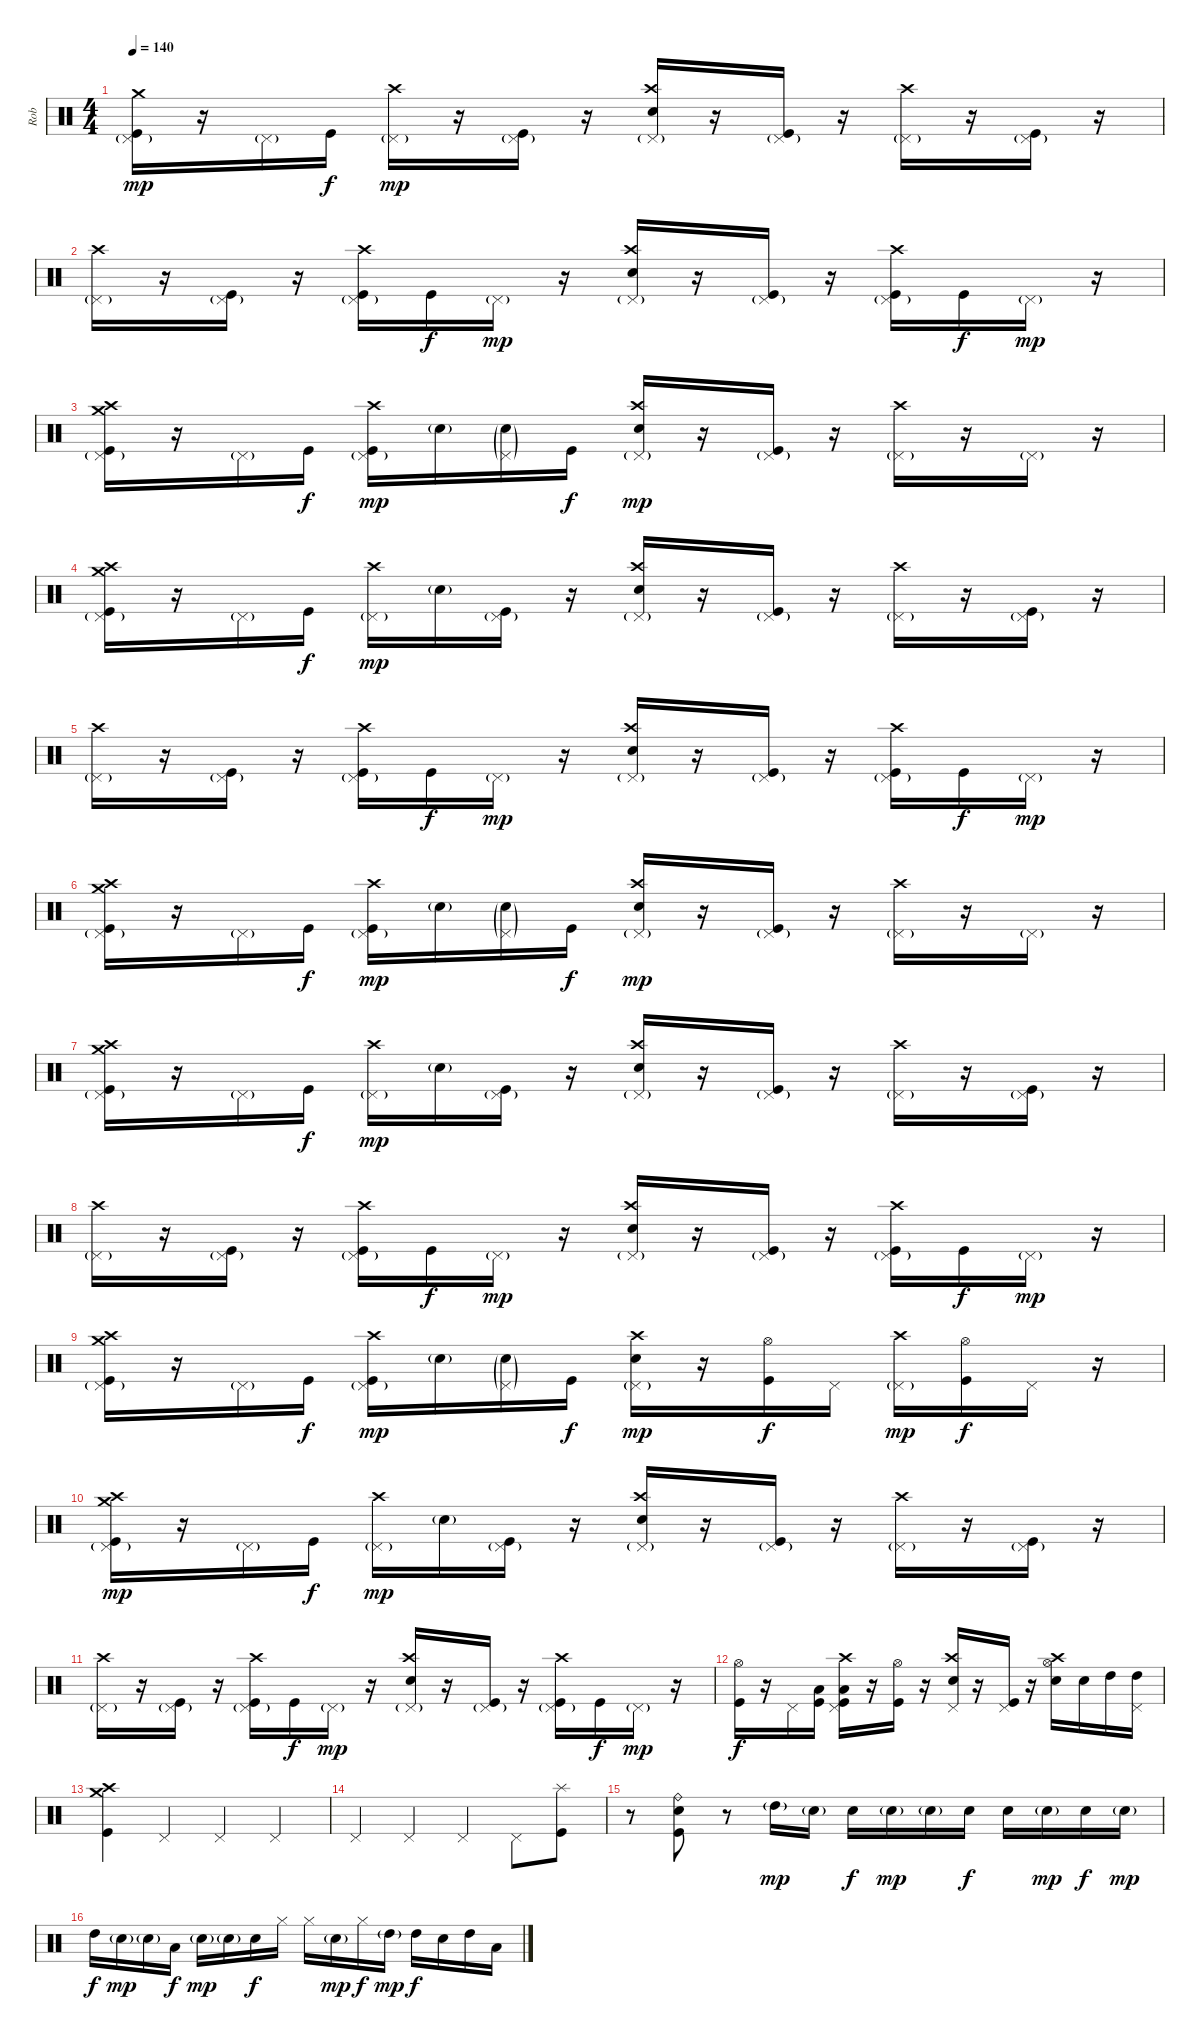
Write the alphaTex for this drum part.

\track ("Rob" "Rob") {instrument percussion}
\staff {score}
\articulation defaults
\ts (4 4)
\tempo 140
\clef neutral
\ks c
("Crash medium (hit)" "Pedal Hi-Hat (hit)"{g} "Kick (hit)").16{dy mp} r.16 "Pedal Hi-Hat (hit)"{g}.16 "Kick (hit)".16{dy f} ("Crash high (hit)" "Pedal Hi-Hat (hit)"{g}).16{dy mp} r.16 ("Pedal Hi-Hat (hit)"{g} "Kick (hit)").16 r.16 ("Electric Snare (hit)" "Crash high (hit)" "Pedal Hi-Hat (hit)"{g}).16 r.16 ("Pedal Hi-Hat (hit)"{g} "Kick (hit)").16 r.16 ("Crash high (hit)" "Pedal Hi-Hat (hit)"{g}).16 r.16 ("Pedal Hi-Hat (hit)"{g} "Kick (hit)").16 r.16 |
("Crash high (hit)" "Pedal Hi-Hat (hit)"{g}).16 r.16 ("Pedal Hi-Hat (hit)"{g} "Kick (hit)").16 r.16 ("Crash high (hit)" "Pedal Hi-Hat (hit)"{g} "Kick (hit)").16 "Kick (hit)".16{dy f} "Pedal Hi-Hat (hit)"{g}.16{dy mp} r.16 ("Electric Snare (hit)" "Crash high (hit)" "Pedal Hi-Hat (hit)"{g}).16 r.16 ("Pedal Hi-Hat (hit)"{g} "Kick (hit)").16 r.16 ("Crash high (hit)" "Pedal Hi-Hat (hit)"{g} "Kick (hit)").16 "Kick (hit)".16{dy f} "Pedal Hi-Hat (hit)"{g}.16{dy mp} r.16 |
("Crash medium (hit)" "Crash high (hit)" "Pedal Hi-Hat (hit)"{g} "Kick (hit)").16 r.16 "Pedal Hi-Hat (hit)"{g}.16 "Kick (hit)".16{dy f} ("Crash high (hit)" "Pedal Hi-Hat (hit)"{g} "Kick (hit)").16{dy mp} "Electric Snare (hit)"{g}.16 ("Electric Snare (hit)"{g} "Pedal Hi-Hat (hit)"{g}).16 "Kick (hit)".16{dy f} ("Electric Snare (hit)" "Crash high (hit)" "Pedal Hi-Hat (hit)"{g}).16{dy mp} r.16 ("Pedal Hi-Hat (hit)"{g} "Kick (hit)").16 r.16 ("Crash high (hit)" "Pedal Hi-Hat (hit)"{g}).16 r.16 "Pedal Hi-Hat (hit)"{g}.16 r.16 |
("Crash medium (hit)" "Crash high (hit)" "Pedal Hi-Hat (hit)"{g} "Kick (hit)").16 r.16 "Pedal Hi-Hat (hit)"{g}.16 "Kick (hit)".16{dy f} ("Crash high (hit)" "Pedal Hi-Hat (hit)"{g}).16{dy mp} "Electric Snare (hit)"{g}.16 ("Pedal Hi-Hat (hit)"{g} "Kick (hit)").16 r.16 ("Electric Snare (hit)" "Crash high (hit)" "Pedal Hi-Hat (hit)"{g}).16 r.16 ("Pedal Hi-Hat (hit)"{g} "Kick (hit)").16 r.16 ("Crash high (hit)" "Pedal Hi-Hat (hit)"{g}).16 r.16 ("Pedal Hi-Hat (hit)"{g} "Kick (hit)").16 r.16 |
("Crash high (hit)" "Pedal Hi-Hat (hit)"{g}).16 r.16 ("Pedal Hi-Hat (hit)"{g} "Kick (hit)").16 r.16 ("Crash high (hit)" "Pedal Hi-Hat (hit)"{g} "Kick (hit)").16 "Kick (hit)".16{dy f} "Pedal Hi-Hat (hit)"{g}.16{dy mp} r.16 ("Electric Snare (hit)" "Crash high (hit)" "Pedal Hi-Hat (hit)"{g}).16 r.16 ("Pedal Hi-Hat (hit)"{g} "Kick (hit)").16 r.16 ("Crash high (hit)" "Pedal Hi-Hat (hit)"{g} "Kick (hit)").16 "Kick (hit)".16{dy f} "Pedal Hi-Hat (hit)"{g}.16{dy mp} r.16 |
("Crash medium (hit)" "Crash high (hit)" "Pedal Hi-Hat (hit)"{g} "Kick (hit)").16 r.16 "Pedal Hi-Hat (hit)"{g}.16 "Kick (hit)".16{dy f} ("Crash high (hit)" "Pedal Hi-Hat (hit)"{g} "Kick (hit)").16{dy mp} "Electric Snare (hit)"{g}.16 ("Electric Snare (hit)"{g} "Pedal Hi-Hat (hit)"{g}).16 "Kick (hit)".16{dy f} ("Electric Snare (hit)" "Crash high (hit)" "Pedal Hi-Hat (hit)"{g}).16{dy mp} r.16 ("Pedal Hi-Hat (hit)"{g} "Kick (hit)").16 r.16 ("Crash high (hit)" "Pedal Hi-Hat (hit)"{g}).16 r.16 "Pedal Hi-Hat (hit)"{g}.16 r.16 |
("Crash medium (hit)" "Crash high (hit)" "Pedal Hi-Hat (hit)"{g} "Kick (hit)").16 r.16 "Pedal Hi-Hat (hit)"{g}.16 "Kick (hit)".16{dy f} ("Crash high (hit)" "Pedal Hi-Hat (hit)"{g}).16{dy mp} "Electric Snare (hit)"{g}.16 ("Pedal Hi-Hat (hit)"{g} "Kick (hit)").16 r.16 ("Electric Snare (hit)" "Crash high (hit)" "Pedal Hi-Hat (hit)"{g}).16 r.16 ("Pedal Hi-Hat (hit)"{g} "Kick (hit)").16 r.16 ("Crash high (hit)" "Pedal Hi-Hat (hit)"{g}).16 r.16 ("Pedal Hi-Hat (hit)"{g} "Kick (hit)").16 r.16 |
("Crash high (hit)" "Pedal Hi-Hat (hit)"{g}).16 r.16 ("Pedal Hi-Hat (hit)"{g} "Kick (hit)").16 r.16 ("Crash high (hit)" "Pedal Hi-Hat (hit)"{g} "Kick (hit)").16 "Kick (hit)".16{dy f} "Pedal Hi-Hat (hit)"{g}.16{dy mp} r.16 ("Electric Snare (hit)" "Crash high (hit)" "Pedal Hi-Hat (hit)"{g}).16 r.16 ("Pedal Hi-Hat (hit)"{g} "Kick (hit)").16 r.16 ("Crash high (hit)" "Pedal Hi-Hat (hit)"{g} "Kick (hit)").16 "Kick (hit)".16{dy f} "Pedal Hi-Hat (hit)"{g}.16{dy mp} r.16 |
("Crash medium (hit)" "Crash high (hit)" "Pedal Hi-Hat (hit)"{g} "Kick (hit)").16 r.16 "Pedal Hi-Hat (hit)"{g}.16 "Kick (hit)".16{dy f} ("Crash high (hit)" "Pedal Hi-Hat (hit)"{g} "Kick (hit)").16{dy mp} "Electric Snare (hit)"{g}.16 ("Electric Snare (hit)"{g} "Pedal Hi-Hat (hit)"{g}).16 "Kick (hit)".16{dy f} ("Electric Snare (hit)" "Crash high (hit)" "Pedal Hi-Hat (hit)"{g}).16{dy mp} r.16 ("Hi-Hat (open)" "Kick (hit)").16{dy f} "Pedal Hi-Hat (hit)".16 ("Crash high (hit)" "Pedal Hi-Hat (hit)"{g}).16{dy mp} ("Hi-Hat (open)" "Kick (hit)").16{dy f} "Pedal Hi-Hat (hit)".16 r.16 |
("Crash medium (hit)" "Crash high (hit)" "Pedal Hi-Hat (hit)"{g} "Kick (hit)").16{dy mp} r.16 "Pedal Hi-Hat (hit)"{g}.16 "Kick (hit)".16{dy f} ("Crash high (hit)" "Pedal Hi-Hat (hit)"{g}).16{dy mp} "Electric Snare (hit)"{g}.16 ("Pedal Hi-Hat (hit)"{g} "Kick (hit)").16 r.16 ("Electric Snare (hit)" "Crash high (hit)" "Pedal Hi-Hat (hit)"{g}).16 r.16 ("Pedal Hi-Hat (hit)"{g} "Kick (hit)").16 r.16 ("Crash high (hit)" "Pedal Hi-Hat (hit)"{g}).16 r.16 ("Pedal Hi-Hat (hit)"{g} "Kick (hit)").16 r.16 |
("Crash high (hit)" "Pedal Hi-Hat (hit)"{g}).16 r.16 ("Pedal Hi-Hat (hit)"{g} "Kick (hit)").16 r.16 ("Crash high (hit)" "Pedal Hi-Hat (hit)"{g} "Kick (hit)").16 "Kick (hit)".16{dy f} "Pedal Hi-Hat (hit)"{g}.16{dy mp} r.16 ("Electric Snare (hit)" "Crash high (hit)" "Pedal Hi-Hat (hit)"{g}).16 r.16 ("Pedal Hi-Hat (hit)"{g} "Kick (hit)").16 r.16 ("Crash high (hit)" "Pedal Hi-Hat (hit)"{g} "Kick (hit)").16 "Kick (hit)".16{dy f} "Pedal Hi-Hat (hit)"{g}.16{dy mp} r.16 |
("Hi-Hat (open)" "Kick (hit)").16{dy f} r.16 "Pedal Hi-Hat (hit)".16 ("Low Tom (hit)" "Kick (hit)").16 ("Low Tom (hit)" "Crash high (hit)" "Pedal Hi-Hat (hit)" "Kick (hit)").16 r.16 ("Hi-Hat (open)" "Kick (hit)").16 r.16 ("Electric Snare (hit)" "Crash high (hit)" "Pedal Hi-Hat (hit)").16 r.16 ("Pedal Hi-Hat (hit)" "Kick (hit)").16 r.16 ("Electric Snare (hit)" "Crash high (hit)" "Hi-Hat (open)").16 "Electric Snare (hit)".16 "High Tom (hit)".16 ("High Tom (hit)" "Pedal Hi-Hat (hit)").16 |
("Crash medium (hit)" "Crash high (hit)" "Kick (hit)").4 "Pedal Hi-Hat (hit)".4 "Pedal Hi-Hat (hit)".4 "Pedal Hi-Hat (hit)".4 |
"Pedal Hi-Hat (hit)".4 "Pedal Hi-Hat (hit)".4 "Pedal Hi-Hat (hit)".4 "Pedal Hi-Hat (hit)".8 ("Splash (hit)" "Kick (hit)").8 |
r.8 ("Electric Snare (hit)" "Ride (bell)" "Kick (hit)").8 r.8 "High Tom (hit)"{g}.16{dy mp} "Electric Snare (hit)"{g}.16 "Electric Snare (hit)".16{dy f} "Electric Snare (hit)"{g}.16{dy mp} "Electric Snare (hit)"{g}.16 "Electric Snare (hit)".16{dy f} "Electric Snare (hit)".16 "Electric Snare (hit)"{g}.16{dy mp} "Electric Snare (hit)".16{dy f} "Electric Snare (hit)"{g}.16{dy mp} |
"High Tom (hit)".16{dy f} "Electric Snare (hit)"{g}.16{dy mp} "Electric Snare (hit)"{g}.16 "Low Tom (hit)".16{dy f} "Electric Snare (hit)"{g}.16{dy mp} "Electric Snare (hit)"{g}.16 "Electric Snare (hit)".16{dy f} "Hi-Hat (closed)".16 "Hi-Hat (closed)".16 "Electric Snare (hit)"{g}.16{dy mp} "Hi-Hat (closed)".16{dy f} "High Tom (hit)"{g}.16{dy mp} "High Tom (hit)".16{dy f} "Electric Snare (hit)".16 "High Tom (hit)".16 "Low Tom (hit)".16
